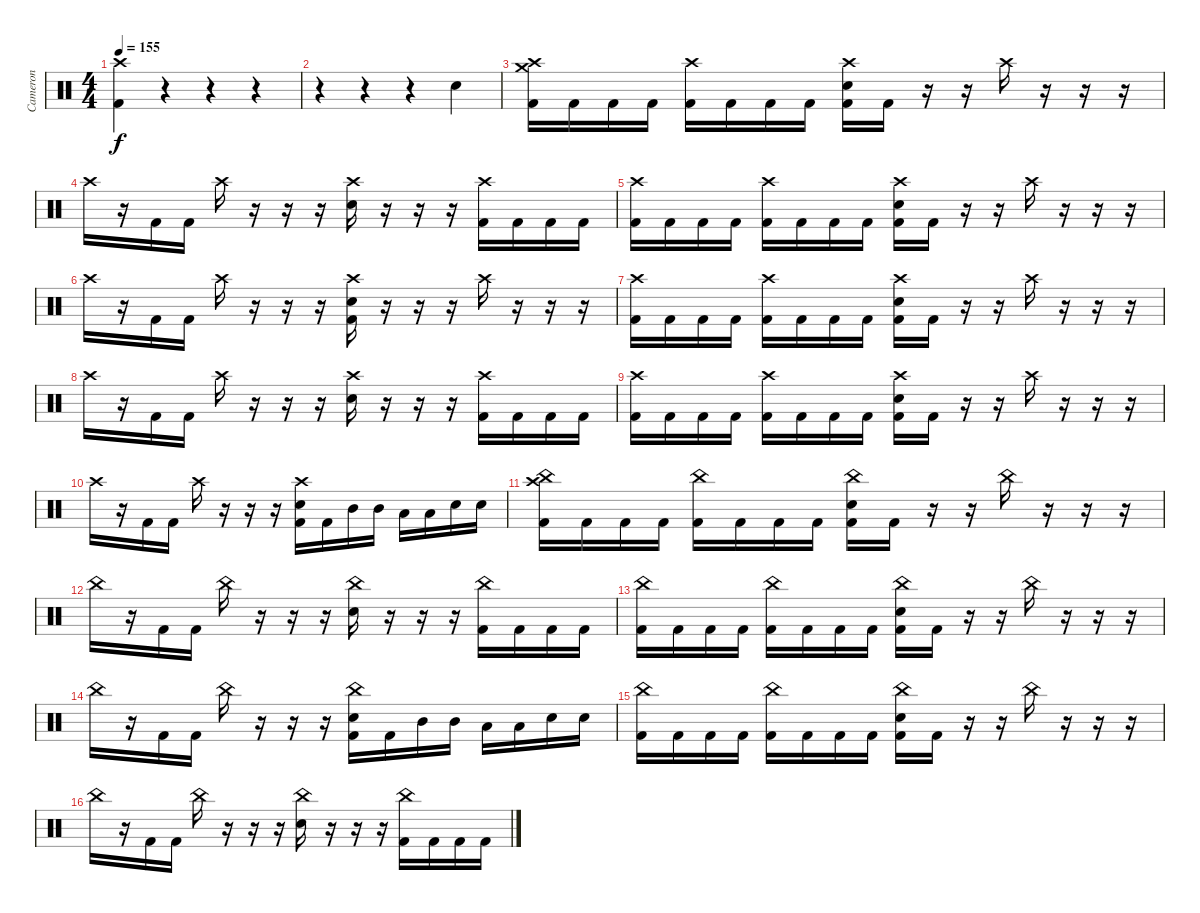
\track ("Cameron" "Cameron") {instrument percussion}
\staff {score}
\articulation defaults
\ts (4 4)
\tempo 155
\clef neutral
\ks c
("Crash high (hit)" "Kick (hit) 2").4{dy f} r.4 r.4 r.4 |
r.4 r.4 r.4 "Snare (hit) 2".4 |
("Crash medium (hit)" "Crash high (hit)" "Kick (hit) 2").16 "Kick (hit) 2".16 "Kick (hit) 2".16 "Kick (hit) 2".16 ("Crash high (hit)" "Kick (hit) 2").16 "Kick (hit) 2".16 "Kick (hit) 2".16 "Kick (hit) 2".16 ("Crash high (hit)" "Snare (hit) 2" "Kick (hit) 2").16 "Kick (hit) 2".16 r.16 r.16 "Crash high (hit)".16 r.16 r.16 r.16 |
"Crash high (hit)".16 r.16 "Kick (hit) 2".16 "Kick (hit) 2".16 "Crash high (hit)".16 r.16 r.16 r.16 ("Crash high (hit)" "Snare (hit) 2").16 r.16 r.16 r.16 ("Crash high (hit)" "Kick (hit) 2").16 "Kick (hit) 2".16 "Kick (hit) 2".16 "Kick (hit) 2".16 |
("Crash high (hit)" "Kick (hit) 2").16 "Kick (hit) 2".16 "Kick (hit) 2".16 "Kick (hit) 2".16 ("Crash high (hit)" "Kick (hit) 2").16 "Kick (hit) 2".16 "Kick (hit) 2".16 "Kick (hit) 2".16 ("Crash high (hit)" "Snare (hit) 2" "Kick (hit) 2").16 "Kick (hit) 2".16 r.16 r.16 "Crash high (hit)".16 r.16 r.16 r.16 |
"Crash high (hit)".16 r.16 "Kick (hit) 2".16 "Kick (hit) 2".16 "Crash high (hit)".16 r.16 r.16 r.16 ("Crash high (hit)" "Snare (hit) 2" "Kick (hit) 2").16 r.16 r.16 r.16 "Crash high (hit)".16 r.16 r.16 r.16 |
("Crash high (hit)" "Kick (hit) 2").16 "Kick (hit) 2".16 "Kick (hit) 2".16 "Kick (hit) 2".16 ("Crash high (hit)" "Kick (hit) 2").16 "Kick (hit) 2".16 "Kick (hit) 2".16 "Kick (hit) 2".16 ("Crash high (hit)" "Snare (hit) 2" "Kick (hit) 2").16 "Kick (hit) 2".16 r.16 r.16 "Crash high (hit)".16 r.16 r.16 r.16 |
"Crash high (hit)".16 r.16 "Kick (hit) 2".16 "Kick (hit) 2".16 "Crash high (hit)".16 r.16 r.16 r.16 ("Crash high (hit)" "Snare (hit) 2").16 r.16 r.16 r.16 ("Crash high (hit)" "Kick (hit) 2").16 "Kick (hit) 2".16 "Kick (hit) 2".16 "Kick (hit) 2".16 |
("Crash high (hit)" "Kick (hit) 2").16 "Kick (hit) 2".16 "Kick (hit) 2".16 "Kick (hit) 2".16 ("Crash high (hit)" "Kick (hit) 2").16 "Kick (hit) 2".16 "Kick (hit) 2".16 "Kick (hit) 2".16 ("Crash high (hit)" "Snare (hit) 2" "Kick (hit) 2").16 "Kick (hit) 2".16 r.16 r.16 "Crash high (hit)".16 r.16 r.16 r.16 |
"Crash high (hit)".16 r.16 "Kick (hit) 2".16 "Kick (hit) 2".16 "Crash high (hit)".16 r.16 r.16 r.16 ("Crash high (hit)" "Snare (hit) 2" "Kick (hit) 2").16 "Kick (hit) 2".16 "Mid Tom (hit)".16 "Mid Tom (hit)".16 "Low Tom (hit)".16 "Low Tom (hit)".16 "Snare (hit) 2".16 "Snare (hit) 2".16 |
("Crash high (hit)" "China (hit)" "Kick (hit) 2").16 "Kick (hit) 2".16 "Kick (hit) 2".16 "Kick (hit) 2".16 ("China (hit)" "Kick (hit) 2").16 "Kick (hit) 2".16 "Kick (hit) 2".16 "Kick (hit) 2".16 ("China (hit)" "Snare (hit) 2" "Kick (hit) 2").16 "Kick (hit) 2".16 r.16 r.16 "China (hit)".16 r.16 r.16 r.16 |
"China (hit)".16 r.16 "Kick (hit) 2".16 "Kick (hit) 2".16 "China (hit)".16 r.16 r.16 r.16 ("China (hit)" "Snare (hit) 2").16 r.16 r.16 r.16 ("China (hit)" "Kick (hit) 2").16 "Kick (hit) 2".16 "Kick (hit) 2".16 "Kick (hit) 2".16 |
("China (hit)" "Kick (hit) 2").16 "Kick (hit) 2".16 "Kick (hit) 2".16 "Kick (hit) 2".16 ("China (hit)" "Kick (hit) 2").16 "Kick (hit) 2".16 "Kick (hit) 2".16 "Kick (hit) 2".16 ("China (hit)" "Snare (hit) 2" "Kick (hit) 2").16 "Kick (hit) 2".16 r.16 r.16 "China (hit)".16 r.16 r.16 r.16 |
"China (hit)".16 r.16 "Kick (hit) 2".16 "Kick (hit) 2".16 "China (hit)".16 r.16 r.16 r.16 ("China (hit)" "Snare (hit) 2" "Kick (hit) 2").16 "Kick (hit) 2".16 "Mid Tom (hit)".16 "Mid Tom (hit)".16 "Low Tom (hit)".16 "Low Tom (hit)".16 "Snare (hit) 2".16 "Snare (hit) 2".16 |
("China (hit)" "Kick (hit) 2").16 "Kick (hit) 2".16 "Kick (hit) 2".16 "Kick (hit) 2".16 ("China (hit)" "Kick (hit) 2").16 "Kick (hit) 2".16 "Kick (hit) 2".16 "Kick (hit) 2".16 ("China (hit)" "Snare (hit) 2" "Kick (hit) 2").16 "Kick (hit) 2".16 r.16 r.16 "China (hit)".16 r.16 r.16 r.16 |
"China (hit)".16 r.16 "Kick (hit) 2".16 "Kick (hit) 2".16 "China (hit)".16 r.16 r.16 r.16 ("China (hit)" "Snare (hit) 2").16 r.16 r.16 r.16 ("China (hit)" "Kick (hit) 2").16 "Kick (hit) 2".16 "Kick (hit) 2".16 "Kick (hit) 2".16
